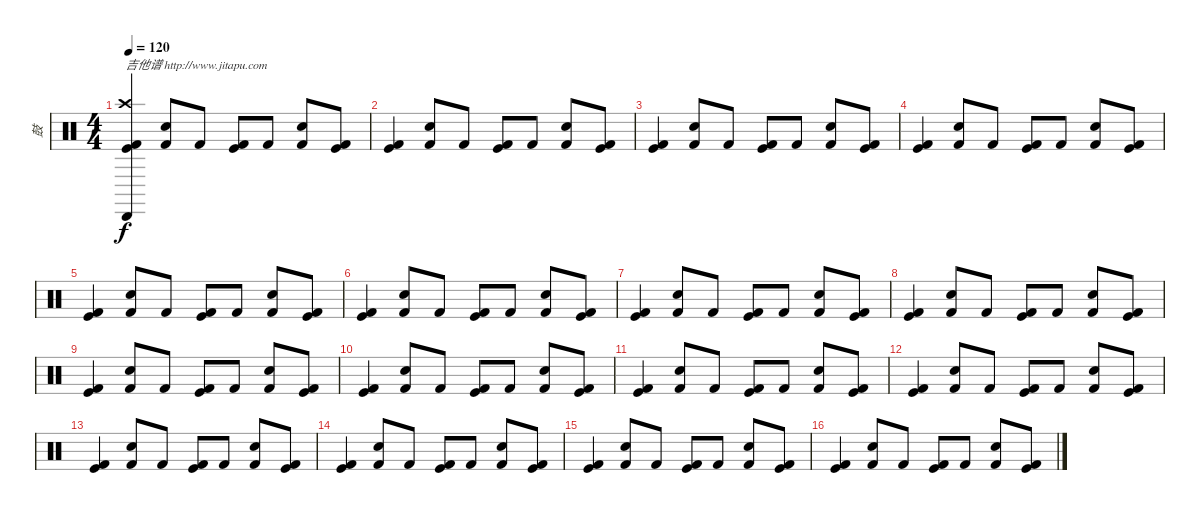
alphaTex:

\track ("鼓" "鼓") {instrument percussion}
\staff {score}
\articulation defaults
\ts (4 4)
\tempo 120
\clef neutral
\ks c
("Crash high (hit)" "Kick (hit) 2" "Kick (hit)" "Cabasa (hit)").4{txt "吉他谱 http://www.jitapu.com" dy f} ("Kick (hit) 2" "Electric Snare (hit)").8 "Kick (hit) 2".8 ("Kick (hit) 2" "Kick (hit)").8 "Kick (hit) 2".8 ("Kick (hit) 2" "Electric Snare (hit)").8 ("Kick (hit) 2" "Kick (hit)").8 |
("Kick (hit) 2" "Kick (hit)").4 ("Kick (hit) 2" "Electric Snare (hit)").8 "Kick (hit) 2".8 ("Kick (hit) 2" "Kick (hit)").8 "Kick (hit) 2".8 ("Kick (hit) 2" "Electric Snare (hit)").8 ("Kick (hit) 2" "Kick (hit)").8 |
("Kick (hit) 2" "Kick (hit)").4 ("Kick (hit) 2" "Electric Snare (hit)").8 "Kick (hit) 2".8 ("Kick (hit) 2" "Kick (hit)").8 "Kick (hit) 2".8 ("Kick (hit) 2" "Electric Snare (hit)").8 ("Kick (hit) 2" "Kick (hit)").8 |
("Kick (hit) 2" "Kick (hit)").4 ("Kick (hit) 2" "Electric Snare (hit)").8 "Kick (hit) 2".8 ("Kick (hit) 2" "Kick (hit)").8 "Kick (hit) 2".8 ("Kick (hit) 2" "Electric Snare (hit)").8 ("Kick (hit) 2" "Kick (hit)").8 |
("Kick (hit) 2" "Kick (hit)").4 ("Kick (hit) 2" "Electric Snare (hit)").8 "Kick (hit) 2".8 ("Kick (hit) 2" "Kick (hit)").8 "Kick (hit) 2".8 ("Kick (hit) 2" "Electric Snare (hit)").8 ("Kick (hit) 2" "Kick (hit)").8 |
("Kick (hit) 2" "Kick (hit)").4 ("Kick (hit) 2" "Electric Snare (hit)").8 "Kick (hit) 2".8 ("Kick (hit) 2" "Kick (hit)").8 "Kick (hit) 2".8 ("Kick (hit) 2" "Electric Snare (hit)").8 ("Kick (hit) 2" "Kick (hit)").8 |
("Kick (hit) 2" "Kick (hit)").4 ("Kick (hit) 2" "Electric Snare (hit)").8 "Kick (hit) 2".8 ("Kick (hit) 2" "Kick (hit)").8 "Kick (hit) 2".8 ("Kick (hit) 2" "Electric Snare (hit)").8 ("Kick (hit) 2" "Kick (hit)").8 |
("Kick (hit) 2" "Kick (hit)").4 ("Kick (hit) 2" "Electric Snare (hit)").8 "Kick (hit) 2".8 ("Kick (hit) 2" "Kick (hit)").8 "Kick (hit) 2".8 ("Kick (hit) 2" "Electric Snare (hit)").8 ("Kick (hit) 2" "Kick (hit)").8 |
("Kick (hit) 2" "Kick (hit)").4 ("Kick (hit) 2" "Electric Snare (hit)").8 "Kick (hit) 2".8 ("Kick (hit) 2" "Kick (hit)").8 "Kick (hit) 2".8 ("Kick (hit) 2" "Electric Snare (hit)").8 ("Kick (hit) 2" "Kick (hit)").8 |
("Kick (hit) 2" "Kick (hit)").4 ("Kick (hit) 2" "Electric Snare (hit)").8 "Kick (hit) 2".8 ("Kick (hit) 2" "Kick (hit)").8 "Kick (hit) 2".8 ("Kick (hit) 2" "Electric Snare (hit)").8 ("Kick (hit) 2" "Kick (hit)").8 |
("Kick (hit) 2" "Kick (hit)").4 ("Kick (hit) 2" "Electric Snare (hit)").8 "Kick (hit) 2".8 ("Kick (hit) 2" "Kick (hit)").8 "Kick (hit) 2".8 ("Kick (hit) 2" "Electric Snare (hit)").8 ("Kick (hit) 2" "Kick (hit)").8 |
("Kick (hit) 2" "Kick (hit)").4 ("Kick (hit) 2" "Electric Snare (hit)").8 "Kick (hit) 2".8 ("Kick (hit) 2" "Kick (hit)").8 "Kick (hit) 2".8 ("Kick (hit) 2" "Electric Snare (hit)").8 ("Kick (hit) 2" "Kick (hit)").8 |
("Kick (hit) 2" "Kick (hit)").4 ("Kick (hit) 2" "Electric Snare (hit)").8 "Kick (hit) 2".8 ("Kick (hit) 2" "Kick (hit)").8 "Kick (hit) 2".8 ("Kick (hit) 2" "Electric Snare (hit)").8 ("Kick (hit) 2" "Kick (hit)").8 |
("Kick (hit) 2" "Kick (hit)").4 ("Kick (hit) 2" "Electric Snare (hit)").8 "Kick (hit) 2".8 ("Kick (hit) 2" "Kick (hit)").8 "Kick (hit) 2".8 ("Kick (hit) 2" "Electric Snare (hit)").8 ("Kick (hit) 2" "Kick (hit)").8 |
("Kick (hit) 2" "Kick (hit)").4 ("Kick (hit) 2" "Electric Snare (hit)").8 "Kick (hit) 2".8 ("Kick (hit) 2" "Kick (hit)").8 "Kick (hit) 2".8 ("Kick (hit) 2" "Electric Snare (hit)").8 ("Kick (hit) 2" "Kick (hit)").8 |
("Kick (hit) 2" "Kick (hit)").4 ("Kick (hit) 2" "Electric Snare (hit)").8 "Kick (hit) 2".8 ("Kick (hit) 2" "Kick (hit)").8 "Kick (hit) 2".8 ("Kick (hit) 2" "Electric Snare (hit)").8 ("Kick (hit) 2" "Kick (hit)").8
